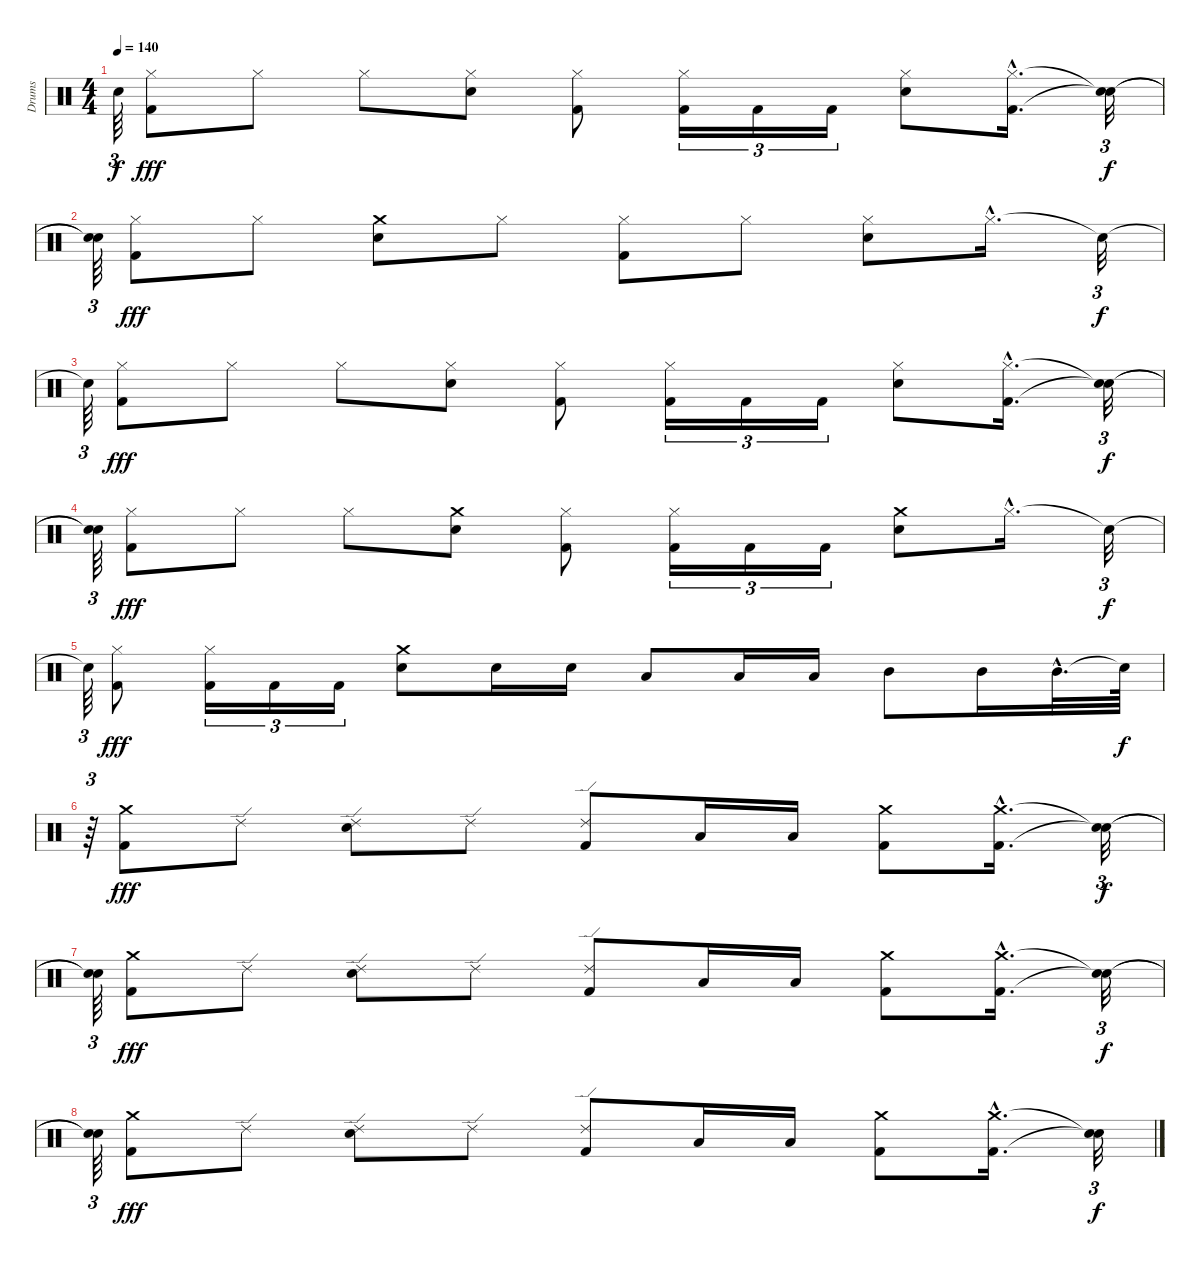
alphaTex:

\track ("Drums" "Drums") {instrument percussion}
\staff {score}
\articulation defaults
\ts (4 4)
\tempo 140
\clef neutral
\ks c "Snare (hit)"{t}.64{tu (3 2) dy f}
("Kick (hit) 2" "Hi-Hat (closed)").8{dy fff} "Hi-Hat (closed)".8 "Hi-Hat (closed)".8 ("Snare (hit) 2" "Hi-Hat (closed)").8 ("Kick (hit) 2" "Hi-Hat (closed)").8 ("Kick (hit) 2" "Hi-Hat (closed)").16{tu (3 2)} "Kick (hit) 2".16{tu (3 2)} "Kick (hit) 2".16{tu (3 2)} ("Snare (hit) 2" "Hi-Hat (closed)").8 ("Kick (hit) 2"{hac} "Hi-Hat (closed)"{hac}).16{d} ("Snare (hit)"{t} "Snare (hit)"{t}).32{tu (3 2) dy f} |
("Snare (hit)"{t} "Snare (hit)"{t}).64{tu (3 2)} ("Hi-Hat (closed)" "Kick (hit) 2").8{dy fff} "Hi-Hat (closed)".8 ("Crash medium (hit)" "Snare (hit) 2").8 "Hi-Hat (closed)".8 ("Hi-Hat (closed)" "Kick (hit) 2").8 "Hi-Hat (closed)".8 ("Snare (hit) 2" "Hi-Hat (closed)").8 "Hi-Hat (closed)"{hac}.16{d} "Snare (hit)"{t}.32{tu (3 2) dy f} |
"Snare (hit)"{t}.64{tu (3 2)} ("Kick (hit) 2" "Hi-Hat (closed)").8{dy fff} "Hi-Hat (closed)".8 "Hi-Hat (closed)".8 ("Snare (hit) 2" "Hi-Hat (closed)").8 ("Kick (hit) 2" "Hi-Hat (closed)").8 ("Kick (hit) 2" "Hi-Hat (closed)").16{tu (3 2)} "Kick (hit) 2".16{tu (3 2)} "Kick (hit) 2".16{tu (3 2)} ("Snare (hit) 2" "Hi-Hat (closed)").8 ("Kick (hit) 2"{hac} "Hi-Hat (closed)"{hac}).16{d} ("Snare (hit)"{t} "Snare (hit)"{t}).32{tu (3 2) dy f} |
("Snare (hit)"{t} "Snare (hit)"{t}).64{tu (3 2)} ("Kick (hit) 2" "Hi-Hat (closed)").8{dy fff} "Hi-Hat (closed)".8 "Hi-Hat (closed)".8 ("Crash medium (hit)" "Snare (hit) 2").8 ("Kick (hit) 2" "Hi-Hat (closed)").8 ("Kick (hit) 2" "Hi-Hat (closed)").16{tu (3 2)} "Kick (hit) 2".16{tu (3 2)} "Kick (hit) 2".16{tu (3 2)} ("Crash medium (hit)" "Snare (hit) 2").8 "Hi-Hat (closed)"{hac}.16{d} "Snare (hit)"{t}.32{tu (3 2) dy f} |
"Snare (hit)"{t}.64{tu (3 2)} ("Hi-Hat (closed)" "Kick (hit) 2").8{dy fff} ("Hi-Hat (closed)" "Kick (hit) 2").16{tu (3 2)} "Kick (hit) 2".16{tu (3 2)} "Kick (hit) 2".16{tu (3 2)} ("Snare (hit) 2" "Crash medium (hit)").8 "Snare (hit) 2".16 "Snare (hit) 2".16 "Low Tom (hit)".8 "Low Tom (hit)".16 "Low Tom (hit)".16 "Mid Tom (hit)".8 "Mid Tom (hit)".16 "Mid Tom (hit)"{hac}.32{d} "Snare (hit)"{t}.64{dy f} |
r.64{tu (3 2)} ("Crash medium (hit)" "Kick (hit) 2").8{dy fff} "Ride (edge) 2".8 ("Snare (hit) 2" "Ride (edge) 2").8 "Ride (edge) 2".8 ("Ride (edge) 2" "Kick (hit) 2").8 "Low Tom (hit)".16 "Low Tom (hit)".16 ("Crash medium (hit)" "Kick (hit) 2").8 ("Crash medium (hit)"{hac} "Kick (hit) 2"{hac}).16{d} ("Snare (hit)"{t} "Snare (hit)"{t}).32{tu (3 2) dy f} |
("Snare (hit)"{t} "Snare (hit)"{t}).64{tu (3 2)} ("Crash medium (hit)" "Kick (hit) 2").8{dy fff} "Ride (edge) 2".8 ("Snare (hit) 2" "Ride (edge) 2").8 "Ride (edge) 2".8 ("Ride (edge) 2" "Kick (hit) 2").8 "Low Tom (hit)".16 "Low Tom (hit)".16 ("Crash medium (hit)" "Kick (hit) 2").8 ("Crash medium (hit)"{hac} "Kick (hit) 2"{hac}).16{d} ("Snare (hit)"{t} "Snare (hit)"{t}).32{tu (3 2) dy f} |
("Snare (hit)"{t} "Snare (hit)"{t}).64{tu (3 2)} ("Crash medium (hit)" "Kick (hit) 2").8{dy fff} "Ride (edge) 2".8 ("Snare (hit) 2" "Ride (edge) 2").8 "Ride (edge) 2".8 ("Ride (edge) 2" "Kick (hit) 2").8 "Low Tom (hit)".16 "Low Tom (hit)".16 ("Crash medium (hit)" "Kick (hit) 2").8 ("Crash medium (hit)"{hac} "Kick (hit) 2"{hac}).16{d} ("Snare (hit)"{t} "Snare (hit)"{t}).32{tu (3 2) dy f}
